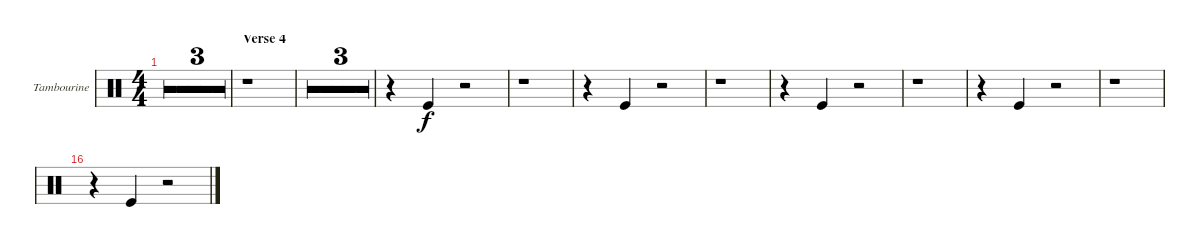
\defaultSystemsLayout 4
\bracketExtendMode groupsimilarinstruments
\useSystemSignSeparator
\multiBarRest
\multiTrackTrackNamePolicy allsystems
\firstSystemTrackNameMode fullname
\firstSystemTrackNameOrientation horizontal
\otherSystemsTrackNameOrientation horizontal
\defaultBarNumberDisplay FirstOfSystem
\track ("Tambourine" "Tamb.") {multiBarRest instrument percussion}
\staff {score}
\articulation defaults
\ts (4 4)
\tempo 119
\clef neutral
\ks aminor
r.1{dy f} |
r.1 |
r.1 |
\section ("" "Verse 4")
r.1 |
r.1 |
r.1 |
r.1 |
r.4 "Kick (hit)".4 r.2 |
r.1 |
r.4 "Kick (hit)".4 r.2 |
r.1 |
r.4 "Kick (hit)".4 r.2 |
r.1 |
r.4 "Kick (hit)".4 r.2 |
r.1 |
r.4 "Kick (hit)".4 r.2
